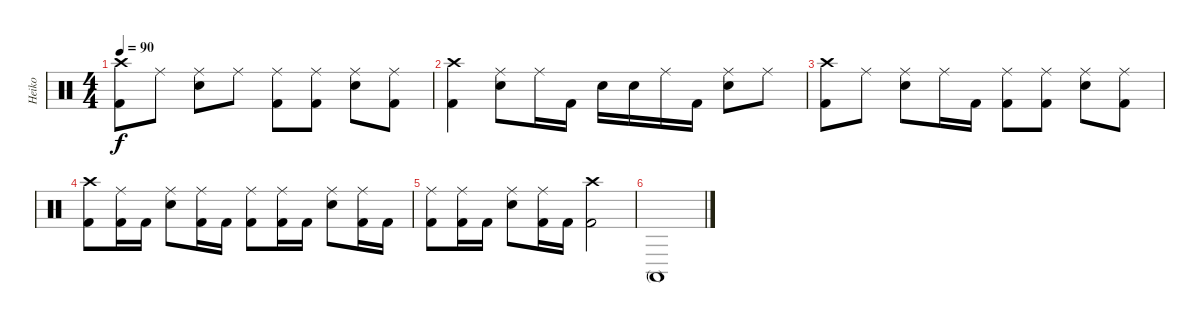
\track ("Heiko" "Heiko") {instrument percussion}
\staff {score}
\articulation defaults
\ts (4 4)
\tempo 90
\clef neutral
\ks c
("Crash high (hit)" "Kick (hit) 2").8{dy f} "Ride (middle)".8 ("Ride (middle)" "Electric Snare (hit)").8 "Ride (middle)".8 ("Ride (middle)" "Kick (hit) 2").8 ("Ride (middle)" "Kick (hit) 2").8 ("Ride (middle)" "Electric Snare (hit)").8 ("Ride (middle)" "Kick (hit) 2").8 |
("Crash high (hit)" "Kick (hit) 2").4 ("Ride (middle)" "Electric Snare (hit)").8 "Ride (middle)".16 "Kick (hit) 2".16 "Electric Snare (hit)".16 "Electric Snare (hit)".16 "Ride (middle)".16 "Kick (hit) 2".16 ("Ride (middle)" "Electric Snare (hit)").8 "Ride (middle)".8 |
("Crash high (hit)" "Kick (hit) 2").8 "Ride (middle)".8 ("Ride (middle)" "Electric Snare (hit)").8 "Ride (middle)".16 "Kick (hit) 2".16 ("Ride (middle)" "Kick (hit) 2").8 ("Ride (middle)" "Kick (hit) 2").8 ("Ride (middle)" "Electric Snare (hit)").8 ("Ride (middle)" "Kick (hit) 2").8 |
("Crash high (hit)" "Kick (hit) 2").8 ("Ride (middle)" "Kick (hit) 2").16 "Kick (hit) 2".16 ("Ride (middle)" "Electric Snare (hit)").8 ("Ride (middle)" "Kick (hit) 2").16 "Kick (hit) 2".16 ("Ride (middle)" "Kick (hit) 2").8 ("Ride (middle)" "Kick (hit) 2").16 "Kick (hit) 2".16 ("Ride (middle)" "Electric Snare (hit)").8 ("Ride (middle)" "Kick (hit) 2").16 "Kick (hit) 2".16 |
("Ride (middle)" "Kick (hit) 2").8 ("Ride (middle)" "Kick (hit) 2").16 "Kick (hit) 2".16 ("Ride (middle)" "Electric Snare (hit)").8 ("Ride (middle)" "Kick (hit) 2").16 "Kick (hit) 2".16 ("Crash high (hit)" "Kick (hit) 2").2 |
"Conga high (mute)".1
